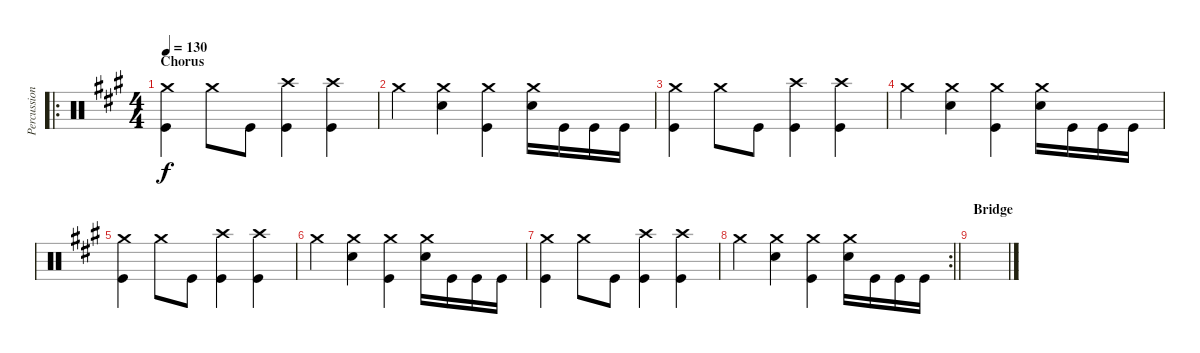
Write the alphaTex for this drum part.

\track ("Percussion" "Percussion") {instrument percussion}
\staff {score}
\articulation defaults
\ro
\ts (4 4)
\section ("" "Chorus")
\tempo 130
\clef neutral
\ks a
("Crash medium (hit)" "Kick (hit)").4{dy f} "Crash medium (hit)".8 "Kick (hit)".8 ("Crash high (hit)" "Kick (hit)").4 ("Crash high (hit)" "Kick (hit)").4 |
"Crash medium (hit)".4 ("Crash medium (hit)" "Snare (hit) 2").4 ("Crash medium (hit)" "Kick (hit)").4 ("Crash medium (hit)" "Snare (hit) 2").16 "Kick (hit)".16 "Kick (hit)".16 "Kick (hit)".16 |
("Crash medium (hit)" "Kick (hit)").4 "Crash medium (hit)".8 "Kick (hit)".8 ("Crash high (hit)" "Kick (hit)").4 ("Crash high (hit)" "Kick (hit)").4 |
"Crash medium (hit)".4 ("Crash medium (hit)" "Snare (hit) 2").4 ("Crash medium (hit)" "Kick (hit)").4 ("Crash medium (hit)" "Snare (hit) 2").16 "Kick (hit)".16 "Kick (hit)".16 "Kick (hit)".16 |
("Crash medium (hit)" "Kick (hit)").4 "Crash medium (hit)".8 "Kick (hit)".8 ("Crash high (hit)" "Kick (hit)").4 ("Crash high (hit)" "Kick (hit)").4 |
"Crash medium (hit)".4 ("Crash medium (hit)" "Snare (hit) 2").4 ("Crash medium (hit)" "Kick (hit)").4 ("Crash medium (hit)" "Snare (hit) 2").16 "Kick (hit)".16 "Kick (hit)".16 "Kick (hit)".16 |
("Crash medium (hit)" "Kick (hit)").4 "Crash medium (hit)".8 "Kick (hit)".8 ("Crash high (hit)" "Kick (hit)").4 ("Crash high (hit)" "Kick (hit)").4 |
\rc 2
\barLineRight lightlight "Crash medium (hit)".4
("Crash medium (hit)" "Snare (hit) 2").4 ("Crash medium (hit)" "Kick (hit)").4 ("Crash medium (hit)" "Snare (hit) 2").16 "Kick (hit)".16 "Kick (hit)".16 "Kick (hit)".16 |
\section ("" "Bridge")
